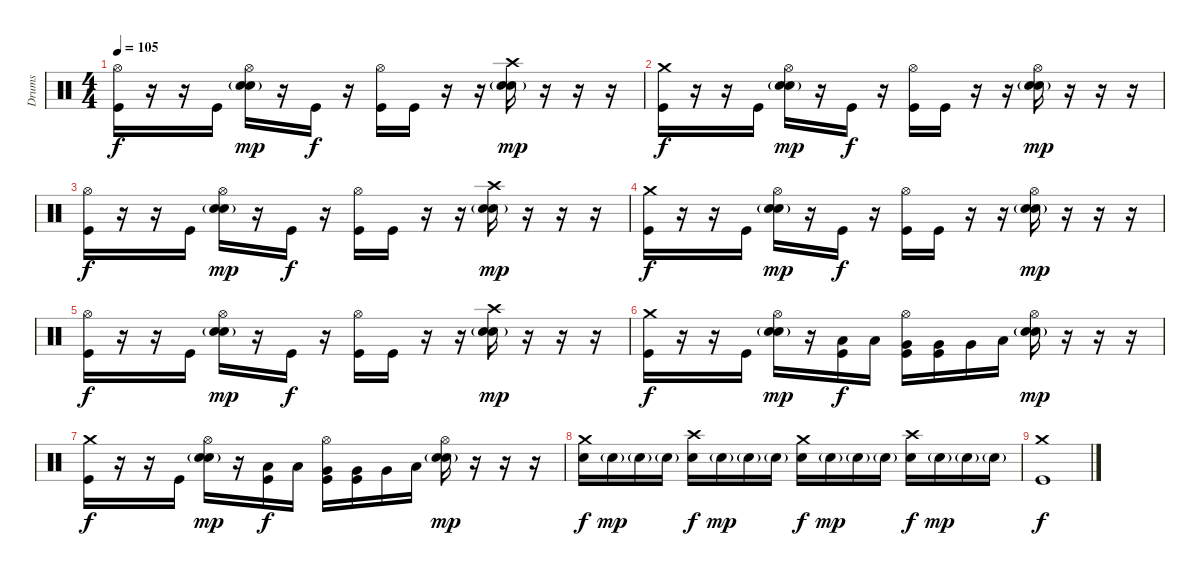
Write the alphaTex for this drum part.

\track ("Drums" "Drums") {instrument percussion}
\staff {score}
\articulation defaults
\ts (4 4)
\tempo 105
\clef neutral
\ks c
("Hi-Hat (open)" "Kick (hit)").16{dy f} r.16 r.16 "Kick (hit)".16 ("Hi-Hat (open)" "Snare (hit) 2"{g} "Snare (hit) 2").16{dy mp} r.16 "Kick (hit)".16{dy f} r.16 ("Hi-Hat (open)" "Kick (hit)").16 "Kick (hit)".16 r.16 r.16 ("Crash high (hit)" "Snare (hit) 2"{g} "Snare (hit) 2").16{dy mp} r.16 r.16 r.16 |
("Crash medium (hit)" "Kick (hit)").16{dy f} r.16 r.16 "Kick (hit)".16 ("Hi-Hat (open)" "Snare (hit) 2"{g} "Snare (hit) 2").16{dy mp} r.16 "Kick (hit)".16{dy f} r.16 ("Hi-Hat (open)" "Kick (hit)").16 "Kick (hit)".16 r.16 r.16 ("Hi-Hat (open)" "Snare (hit) 2"{g} "Snare (hit) 2").16{dy mp} r.16 r.16 r.16 |
("Hi-Hat (open)" "Kick (hit)").16{dy f} r.16 r.16 "Kick (hit)".16 ("Hi-Hat (open)" "Snare (hit) 2"{g} "Snare (hit) 2").16{dy mp} r.16 "Kick (hit)".16{dy f} r.16 ("Hi-Hat (open)" "Kick (hit)").16 "Kick (hit)".16 r.16 r.16 ("Crash high (hit)" "Snare (hit) 2"{g} "Snare (hit) 2").16{dy mp} r.16 r.16 r.16 |
("Crash medium (hit)" "Kick (hit)").16{dy f} r.16 r.16 "Kick (hit)".16 ("Hi-Hat (open)" "Snare (hit) 2"{g} "Snare (hit) 2").16{dy mp} r.16 "Kick (hit)".16{dy f} r.16 ("Hi-Hat (open)" "Kick (hit)").16 "Kick (hit)".16 r.16 r.16 ("Hi-Hat (open)" "Snare (hit) 2"{g} "Snare (hit) 2").16{dy mp} r.16 r.16 r.16 |
("Hi-Hat (open)" "Kick (hit)").16{dy f} r.16 r.16 "Kick (hit)".16 ("Hi-Hat (open)" "Snare (hit) 2"{g} "Snare (hit) 2").16{dy mp} r.16 "Kick (hit)".16{dy f} r.16 ("Hi-Hat (open)" "Kick (hit)").16 "Kick (hit)".16 r.16 r.16 ("Crash high (hit)" "Snare (hit) 2"{g} "Snare (hit) 2").16{dy mp} r.16 r.16 r.16 |
("Crash medium (hit)" "Kick (hit)").16{dy f} r.16 r.16 "Kick (hit)".16 ("Hi-Hat (open)" "Snare (hit) 2"{g} "Snare (hit) 2").16{dy mp} r.16 ("Low Tom (hit)" "Kick (hit)").16{dy f} "Low Tom (hit)".16 ("Hi-Hat (open)" "Very Low Tom (hit)" "Kick (hit)").16 ("Very Low Tom (hit)" "Kick (hit)").16 "Very Low Tom (hit)".16 "Low Tom (hit)".16 ("Hi-Hat (open)" "Snare (hit) 2"{g} "Snare (hit) 2").16{dy mp} r.16 r.16 r.16 |
("Crash medium (hit)" "Kick (hit)").16{dy f} r.16 r.16 "Kick (hit)".16 ("Hi-Hat (open)" "Snare (hit) 2"{g} "Snare (hit) 2").16{dy mp} r.16 ("Low Tom (hit)" "Kick (hit)").16{dy f} "Low Tom (hit)".16 ("Hi-Hat (open)" "Very Low Tom (hit)" "Kick (hit)").16 ("Very Low Tom (hit)" "Kick (hit)").16 "Very Low Tom (hit)".16 "Low Tom (hit)".16 ("Hi-Hat (open)" "Snare (hit) 2"{g} "Snare (hit) 2").16{dy mp} r.16 r.16 r.16 |
("Crash medium (hit)" "Snare (hit) 2").16{dy f} "Snare (hit) 2"{g}.16{dy mp} "Snare (hit) 2"{g}.16 "Snare (hit) 2"{g}.16 ("Crash high (hit)" "Snare (hit) 2").16{dy f} "Snare (hit) 2"{g}.16{dy mp} "Snare (hit) 2"{g}.16 "Snare (hit) 2"{g}.16 ("Crash medium (hit)" "Snare (hit) 2").16{dy f} "Snare (hit) 2"{g}.16{dy mp} "Snare (hit) 2"{g}.16 "Snare (hit) 2"{g}.16 ("Crash high (hit)" "Snare (hit) 2").16{dy f} "Snare (hit) 2"{g}.16{dy mp} "Snare (hit) 2"{g}.16 "Snare (hit) 2"{g}.16 |
("Crash medium (hit)" "Kick (hit)").1{dy f}
